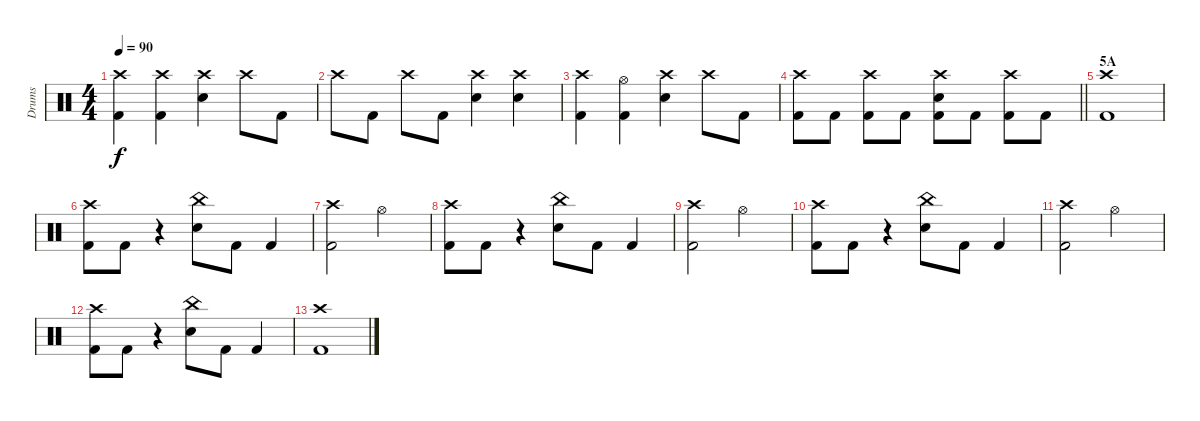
\track ("Drums" "Drums") {instrument percussion}
\staff {score}
\articulation defaults
\ts (4 4)
\tempo 90
\clef neutral
\ks c
("Crash high (hit)" "Kick (hit) 2").4{dy f} ("Crash high (hit)" "Kick (hit) 2").4 ("Crash high (hit)" "Electric Snare (hit)").4 "Crash high (hit)".8 "Kick (hit) 2".8 |
"Crash high (hit)".8 "Kick (hit) 2".8 "Crash high (hit)".8 "Kick (hit) 2".8 ("Crash high (hit)" "Electric Snare (hit)").4 ("Crash high (hit)" "Electric Snare (hit)").4 |
("Crash high (hit)" "Kick (hit) 2").4 ("Hi-Hat (open)" "Kick (hit) 2").4 ("Crash high (hit)" "Electric Snare (hit)").4 "Crash high (hit)".8 "Kick (hit) 2".8 |
\barLineRight lightlight
("Crash high (hit)" "Kick (hit) 2").8 "Kick (hit) 2".8 ("Crash high (hit)" "Kick (hit) 2").8 "Kick (hit) 2".8 ("Crash high (hit)" "Electric Snare (hit)" "Kick (hit) 2").8 "Kick (hit) 2".8 ("Crash high (hit)" "Kick (hit) 2").8 "Kick (hit) 2".8 |
\section ("" "5A")
("Crash high (hit)" "Kick (hit) 2").1 |
("Crash high (hit)" "Kick (hit) 2").8 "Kick (hit) 2".8 r.4 ("China (hit)" "Electric Snare (hit)").8 "Kick (hit) 2".8 "Kick (hit) 2".4 |
("Crash high (hit)" "Kick (hit) 2").2 "Hi-Hat (open)".2 |
("Crash high (hit)" "Kick (hit) 2").8 "Kick (hit) 2".8 r.4 ("China (hit)" "Electric Snare (hit)").8 "Kick (hit) 2".8 "Kick (hit) 2".4 |
("Crash high (hit)" "Kick (hit) 2").2 "Hi-Hat (open)".2 |
("Crash high (hit)" "Kick (hit) 2").8 "Kick (hit) 2".8 r.4 ("China (hit)" "Electric Snare (hit)").8 "Kick (hit) 2".8 "Kick (hit) 2".4 |
("Crash high (hit)" "Kick (hit) 2").2 "Hi-Hat (open)".2 |
("Crash high (hit)" "Kick (hit) 2").8 "Kick (hit) 2".8 r.4 ("China (hit)" "Electric Snare (hit)").8 "Kick (hit) 2".8 "Kick (hit) 2".4 |
("Crash high (hit)" "Kick (hit) 2").1
